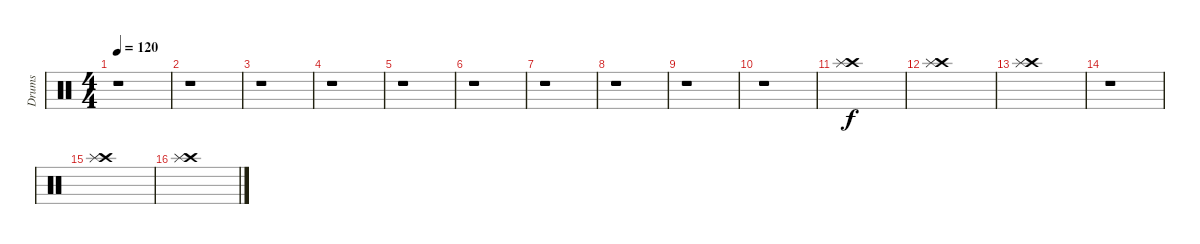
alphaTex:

\track ("Drums" "Drums") {instrument percussion}
\staff {score}
\articulation defaults
\ts (4 4)
\tempo 120
\clef neutral
\ks c
r.1{dy f} |
r.1 |
r.1 |
r.1 |
r.1 |
r.1 |
r.1 |
r.1 |
r.1 |
r.1 |
("Crash high (hit)" "Splash (hit)").1 |
("Crash high (hit)" "Splash (hit)").1 |
("Crash high (hit)" "Splash (hit)").1 |
r.1 |
("Crash high (hit)" "Splash (hit)").1 |
("Crash high (hit)" "Splash (hit)").1
